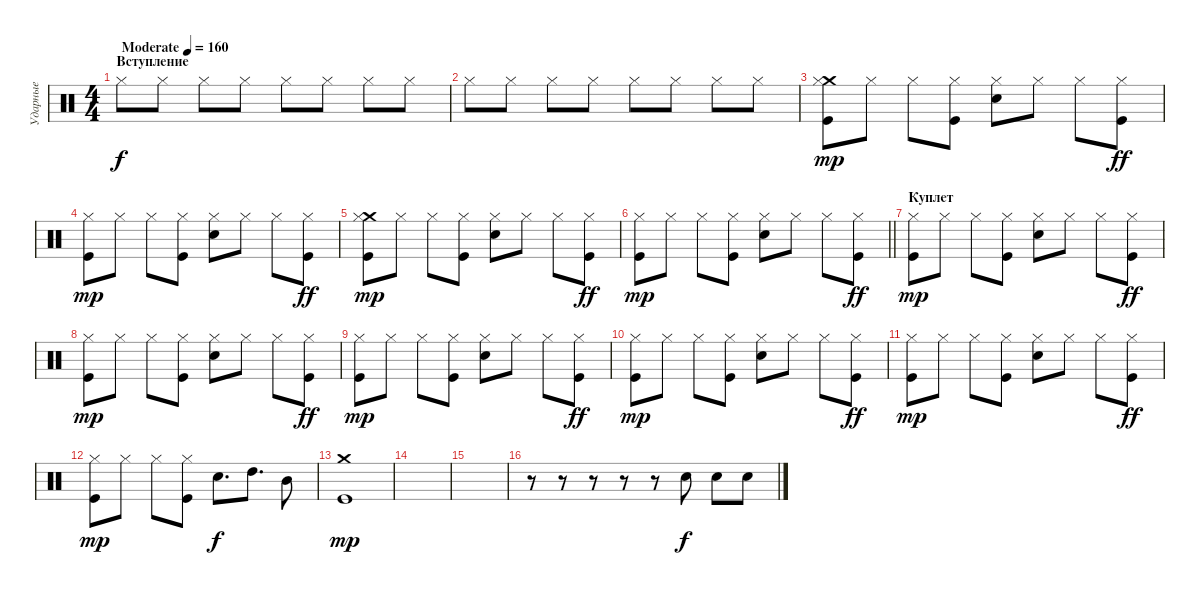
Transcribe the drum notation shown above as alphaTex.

\track ("Ударные" "Ударные") {instrument percussion}
\staff {score}
\articulation defaults
\ts (4 4)
\section ("" "Вступление")
\tempo (160 "Moderate")
\clef neutral
\ks c "Hi-Hat (closed)".8{dy f} "Hi-Hat (closed)".8 "Hi-Hat (closed)".8 "Hi-Hat (closed)".8 "Hi-Hat (closed)".8 "Hi-Hat (closed)".8 "Hi-Hat (closed)".8 "Hi-Hat (closed)".8
|
"Hi-Hat (closed)".8 "Hi-Hat (closed)".8 "Hi-Hat (closed)".8 "Hi-Hat (closed)".8 "Hi-Hat (closed)".8 "Hi-Hat (closed)".8 "Hi-Hat (closed)".8 "Hi-Hat (closed)".8 |
("Crash medium (hit)" "Hi-Hat (closed)" "Kick (hit)").8{dy mp} "Hi-Hat (closed)".8 "Hi-Hat (closed)".8 ("Hi-Hat (closed)" "Kick (hit)").8 ("Hi-Hat (closed)" "Electric Snare (hit)").8 "Hi-Hat (closed)".8 "Hi-Hat (closed)".8 ("Hi-Hat (closed)" "Kick (hit)").8{dy ff} |
("Hi-Hat (closed)" "Kick (hit)").8{dy mp} "Hi-Hat (closed)".8 "Hi-Hat (closed)".8 ("Hi-Hat (closed)" "Kick (hit)").8 ("Hi-Hat (closed)" "Electric Snare (hit)").8 "Hi-Hat (closed)".8 "Hi-Hat (closed)".8 ("Hi-Hat (closed)" "Kick (hit)").8{dy ff} |
("Crash medium (hit)" "Hi-Hat (closed)" "Kick (hit)").8{dy mp} "Hi-Hat (closed)".8 "Hi-Hat (closed)".8 ("Hi-Hat (closed)" "Kick (hit)").8 ("Hi-Hat (closed)" "Electric Snare (hit)").8 "Hi-Hat (closed)".8 "Hi-Hat (closed)".8 ("Hi-Hat (closed)" "Kick (hit)").8{dy ff} |
\barLineRight lightlight
("Hi-Hat (closed)" "Kick (hit)").8{dy mp} "Hi-Hat (closed)".8 "Hi-Hat (closed)".8 ("Hi-Hat (closed)" "Kick (hit)").8 ("Hi-Hat (closed)" "Electric Snare (hit)").8 "Hi-Hat (closed)".8 "Hi-Hat (closed)".8 ("Hi-Hat (closed)" "Kick (hit)").8{dy ff} |
\section ("" "Куплет")
("Hi-Hat (closed)" "Kick (hit)").8{dy mp} "Hi-Hat (closed)".8 "Hi-Hat (closed)".8 ("Hi-Hat (closed)" "Kick (hit)").8 ("Hi-Hat (closed)" "Electric Snare (hit)").8 "Hi-Hat (closed)".8 "Hi-Hat (closed)".8 ("Hi-Hat (closed)" "Kick (hit)").8{dy ff} |
("Hi-Hat (closed)" "Kick (hit)").8{dy mp} "Hi-Hat (closed)".8 "Hi-Hat (closed)".8 ("Hi-Hat (closed)" "Kick (hit)").8 ("Hi-Hat (closed)" "Electric Snare (hit)").8 "Hi-Hat (closed)".8 "Hi-Hat (closed)".8 ("Hi-Hat (closed)" "Kick (hit)").8{dy ff} |
("Hi-Hat (closed)" "Kick (hit)").8{dy mp} "Hi-Hat (closed)".8 "Hi-Hat (closed)".8 ("Hi-Hat (closed)" "Kick (hit)").8 ("Hi-Hat (closed)" "Electric Snare (hit)").8 "Hi-Hat (closed)".8 "Hi-Hat (closed)".8 ("Hi-Hat (closed)" "Kick (hit)").8{dy ff} |
("Hi-Hat (closed)" "Kick (hit)").8{dy mp} "Hi-Hat (closed)".8 "Hi-Hat (closed)".8 ("Hi-Hat (closed)" "Kick (hit)").8 ("Hi-Hat (closed)" "Electric Snare (hit)").8 "Hi-Hat (closed)".8 "Hi-Hat (closed)".8 ("Hi-Hat (closed)" "Kick (hit)").8{dy ff} |
("Hi-Hat (closed)" "Kick (hit)").8{dy mp} "Hi-Hat (closed)".8 "Hi-Hat (closed)".8 ("Hi-Hat (closed)" "Kick (hit)").8 ("Hi-Hat (closed)" "Electric Snare (hit)").8 "Hi-Hat (closed)".8 "Hi-Hat (closed)".8 ("Hi-Hat (closed)" "Kick (hit)").8{dy ff} |
("Hi-Hat (closed)" "Kick (hit)").8{dy mp} "Hi-Hat (closed)".8 "Hi-Hat (closed)".8 ("Hi-Hat (closed)" "Kick (hit)").8 "Electric Snare (hit)".8{d dy f} "High Tom (hit)".8{d} "Mid Tom (hit)".8 |
("Crash medium (hit)" "Kick (hit)").1{dy mp} |
|
|
r.8 r.8 r.8 r.8 r.8 "Electric Snare (hit)".8{dy f} "Electric Snare (hit)".8 "Electric Snare (hit)".8
